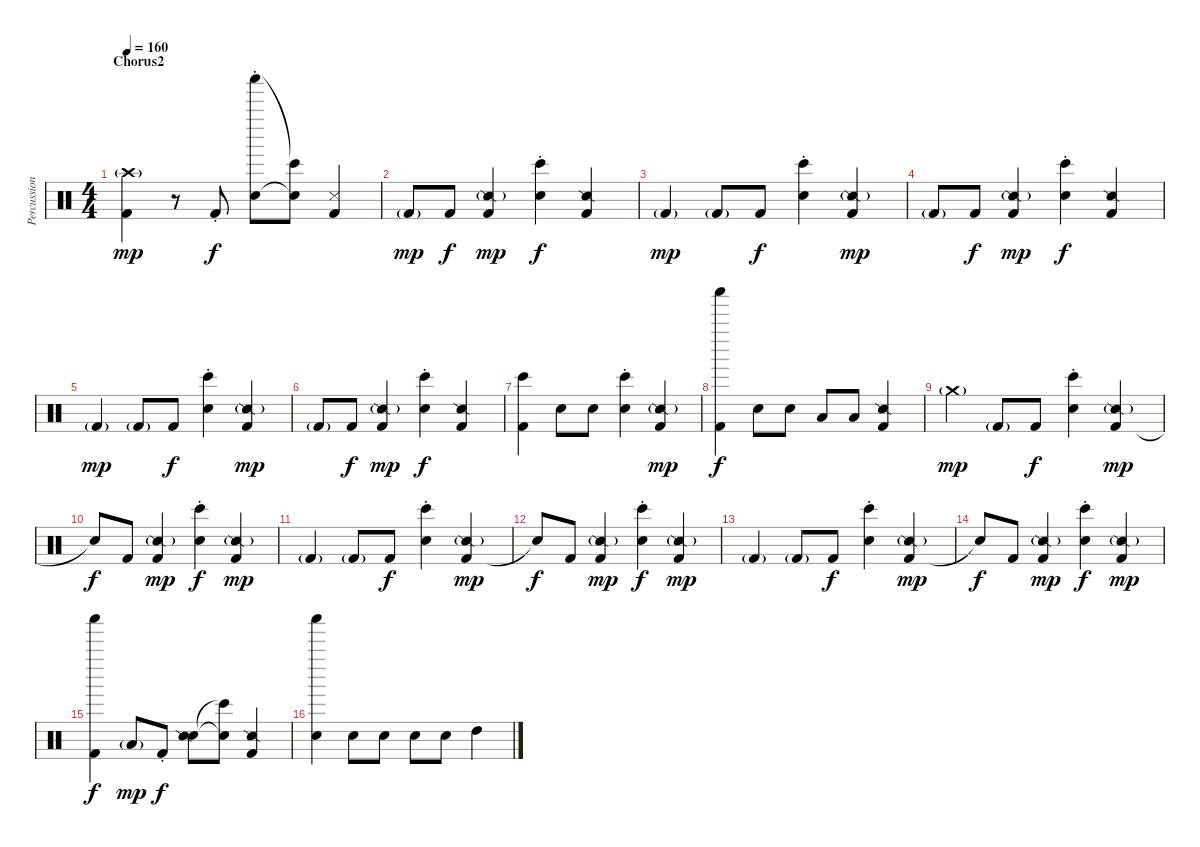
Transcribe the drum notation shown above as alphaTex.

\track ("Percussion" "Percussion") {instrument percussion}
\staff {score}
\articulation defaults
\ts (4 4)
\section ("" "Chorus2")
\tempo 160
\clef neutral
\ks c
("Crash high (hit)"{g} "Kick (hit) 2").4{dy mp} r.8 "Kick (hit) 2"{st}.8{dy f} ("Electric Snare (hit)" "Shaker (hit)"{st}).8 ("Electric Snare (hit)"{t} "Bongo High (hit)"{t}).8 ("Kick (hit) 2" "Snare (side stick) 3").4 |
"Kick (hit) 2"{g}.8{dy mp} "Kick (hit) 2".8{dy f} ("Kick (hit) 2" "Snare (side stick) 2"{g}).4{dy mp} ("Electric Snare (hit)" "Bongo High (hit)"{st}).4{dy f} ("Kick (hit) 2" "Snare (side stick) 2").4 |
"Kick (hit) 2"{g}.4{dy mp} "Kick (hit) 2"{g}.8 "Kick (hit) 2".8{dy f} ("Electric Snare (hit)" "Bongo High (hit)"{st}).4 ("Kick (hit) 2" "Snare (side stick) 2"{g}).4{dy mp} |
"Kick (hit) 2"{g}.8 "Kick (hit) 2".8{dy f} ("Kick (hit) 2" "Snare (side stick) 2"{g}).4{dy mp} ("Electric Snare (hit)" "Bongo High (hit)"{st}).4{dy f} ("Kick (hit) 2" "Snare (side stick) 2").4 |
"Kick (hit) 2"{g}.4{dy mp} "Kick (hit) 2"{g}.8 "Kick (hit) 2".8{dy f} ("Electric Snare (hit)" "Bongo High (hit)"{st}).4 ("Kick (hit) 2" "Snare (side stick) 2"{g}).4{dy mp} |
"Kick (hit) 2"{g}.8 "Kick (hit) 2".8{dy f} ("Kick (hit) 2" "Snare (side stick) 2"{g}).4{dy mp} ("Electric Snare (hit)" "Bongo High (hit)"{st}).4{dy f} ("Kick (hit) 2" "Snare (side stick) 2").4 |
("Kick (hit) 2" "Bongo High (hit)").4 "Electric Snare (hit)".8 "Electric Snare (hit)".8 ("Electric Snare (hit)" "Bongo High (hit)"{st}).4 ("Kick (hit) 2" "Snare (side stick) 2"{g}).4{dy mp} |
("Kick (hit) 2" "Shaker (hit)").4{dy f} "Electric Snare (hit)".8 "Electric Snare (hit)".8 "Low Tom (hit)".8 "Low Tom (hit)".8 ("Kick (hit) 2" "Snare (side stick) 2").4 |
"Crash medium (hit)"{g}.4{dy mp} "Kick (hit) 2"{g}.8 "Kick (hit) 2".8{dy f} ("Electric Snare (hit)" "Bongo High (hit)"{st}).4 ("Kick (hit) 2" "Snare (side stick) 2"{g}).4{dy mp} |
"Snare (hit)"{t}.8{dy f} "Kick (hit) 2".8 ("Kick (hit) 2" "Snare (side stick) 2"{g}).4{dy mp} ("Electric Snare (hit)" "Bongo High (hit)"{st}).4{dy f} ("Kick (hit) 2" "Snare (side stick) 2"{g}).4{dy mp} |
"Kick (hit) 2"{g}.4 "Kick (hit) 2"{g}.8 "Kick (hit) 2".8{dy f} ("Electric Snare (hit)" "Bongo High (hit)"{st}).4 ("Kick (hit) 2" "Snare (side stick) 2"{g}).4{dy mp} |
"Snare (hit)"{t}.8{dy f} "Kick (hit) 2".8 ("Kick (hit) 2" "Snare (side stick) 2"{g}).4{dy mp} ("Electric Snare (hit)" "Bongo High (hit)"{st}).4{dy f} ("Kick (hit) 2" "Snare (side stick) 2"{g}).4{dy mp} |
"Kick (hit) 2"{g}.4 "Kick (hit) 2"{g}.8 "Kick (hit) 2".8{dy f} ("Electric Snare (hit)" "Bongo High (hit)"{st}).4 ("Kick (hit) 2" "Snare (side stick) 2"{g}).4{dy mp} |
"Snare (hit)"{t}.8{dy f} "Kick (hit) 2".8 ("Kick (hit) 2" "Snare (side stick) 2"{g}).4{dy mp} ("Electric Snare (hit)" "Bongo High (hit)"{st}).4{dy f} ("Kick (hit) 2" "Snare (side stick) 2"{g}).4{dy mp} |
("Kick (hit) 2" "Shaker (hit)").4{dy f} "Low Tom (hit)"{g}.8{dy mp} "Kick (hit) 2"{st}.8{dy f} ("Electric Snare (hit)" "Snare (side stick) 2").8 ("Electric Snare (hit)"{t} "Bongo High (hit)"{t}).8 ("Kick (hit) 2" "Snare (side stick) 2").4 |
("Electric Snare (hit)" "Shaker (hit)").4 "Electric Snare (hit)".8 "Electric Snare (hit)".8 "Electric Snare (hit)".8 "Electric Snare (hit)".8 "High Tom (hit)".4
